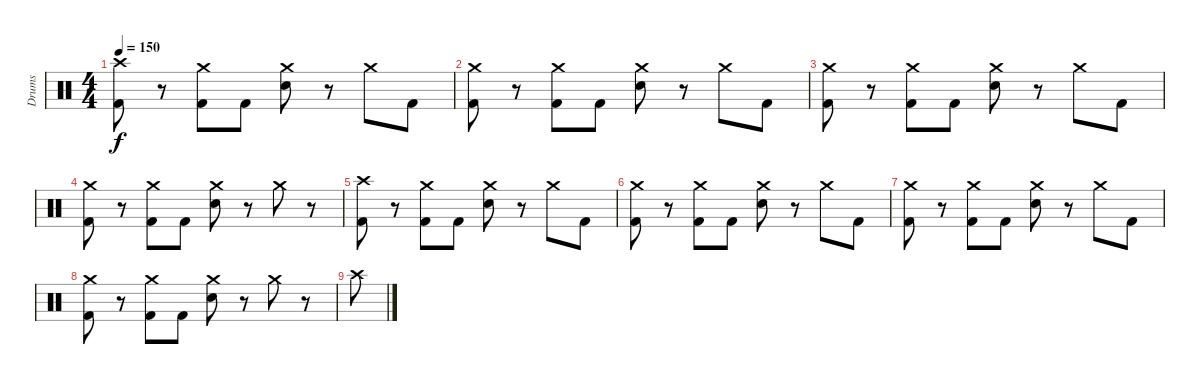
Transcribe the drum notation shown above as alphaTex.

\track ("Drums" "Drums") {instrument percussion}
\staff {score}
\articulation defaults
\ts (4 4)
\tempo 150
\clef neutral
\ks c
("Crash high (hit)" "Kick (hit) 2").8{dy f} r.8 ("Crash medium (hit)" "Kick (hit) 2").8 "Kick (hit) 2".8 ("Crash medium (hit)" "Snare (hit) 2").8 r.8 "Crash medium (hit)".8 "Kick (hit) 2".8 |
("Crash medium (hit)" "Kick (hit) 2").8 r.8 ("Crash medium (hit)" "Kick (hit) 2").8 "Kick (hit) 2".8 ("Crash medium (hit)" "Snare (hit) 2").8 r.8 "Crash medium (hit)".8 "Kick (hit) 2".8 |
("Crash medium (hit)" "Kick (hit) 2").8 r.8 ("Crash medium (hit)" "Kick (hit) 2").8 "Kick (hit) 2".8 ("Crash medium (hit)" "Snare (hit) 2").8 r.8 "Crash medium (hit)".8 "Kick (hit) 2".8 |
("Crash medium (hit)" "Kick (hit) 2").8 r.8 ("Crash medium (hit)" "Kick (hit) 2").8 "Kick (hit) 2".8 ("Crash medium (hit)" "Snare (hit) 2").8 r.8 "Crash medium (hit)".8 r.8 |
("Crash high (hit)" "Kick (hit) 2").8 r.8 ("Crash medium (hit)" "Kick (hit) 2").8 "Kick (hit) 2".8 ("Crash medium (hit)" "Snare (hit) 2").8 r.8 "Crash medium (hit)".8 "Kick (hit) 2".8 |
("Crash medium (hit)" "Kick (hit) 2").8 r.8 ("Crash medium (hit)" "Kick (hit) 2").8 "Kick (hit) 2".8 ("Crash medium (hit)" "Snare (hit) 2").8 r.8 "Crash medium (hit)".8 "Kick (hit) 2".8 |
("Crash medium (hit)" "Kick (hit) 2").8 r.8 ("Crash medium (hit)" "Kick (hit) 2").8 "Kick (hit) 2".8 ("Crash medium (hit)" "Snare (hit) 2").8 r.8 "Crash medium (hit)".8 "Kick (hit) 2".8 |
("Crash medium (hit)" "Kick (hit) 2").8 r.8 ("Crash medium (hit)" "Kick (hit) 2").8 "Kick (hit) 2".8 ("Crash medium (hit)" "Snare (hit) 2").8 r.8 "Crash medium (hit)".8 r.8 |
"Crash high (hit)".8
